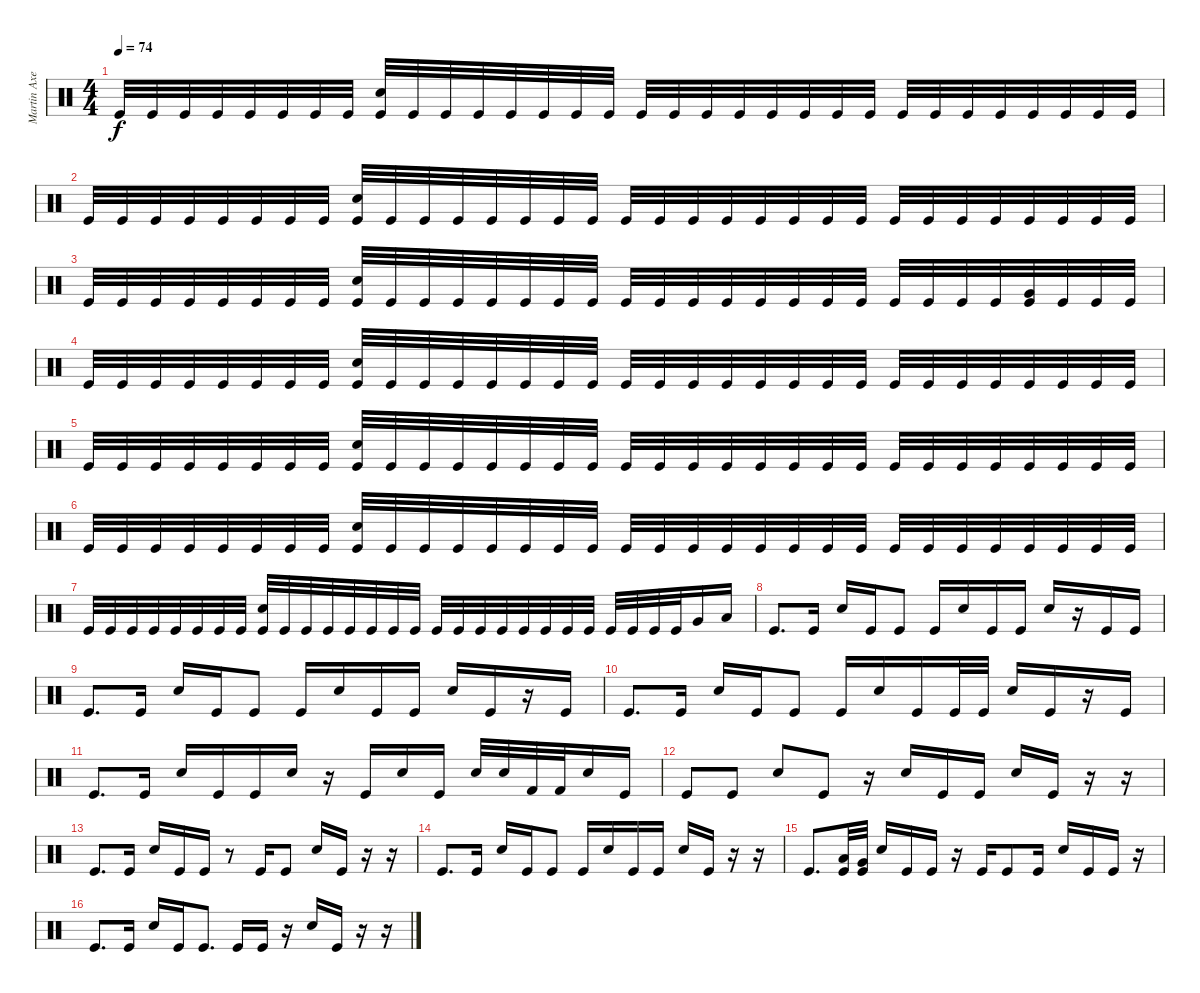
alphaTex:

\track ("Martin Axenrot - Drums" "Martin Axe") {instrument percussion}
\staff {score}
\articulation defaults
\ts (4 4)
\tempo 74
\clef neutral
\ks c "Kick (hit)".32{dy f} "Kick (hit)".32 "Kick (hit)".32 "Kick (hit)".32 "Kick (hit)".32 "Kick (hit)".32 "Kick (hit)".32 "Kick (hit)".32
("Snare (hit) 2" "Kick (hit)").32 "Kick (hit)".32 "Kick (hit)".32 "Kick (hit)".32 "Kick (hit)".32 "Kick (hit)".32 "Kick (hit)".32 "Kick (hit)".32 "Kick (hit)".32 "Kick (hit)".32 "Kick (hit)".32 "Kick (hit)".32 "Kick (hit)".32 "Kick (hit)".32 "Kick (hit)".32 "Kick (hit)".32 "Kick (hit)".32 "Kick (hit)".32 "Kick (hit)".32 "Kick (hit)".32 "Kick (hit)".32 "Kick (hit)".32 "Kick (hit)".32 "Kick (hit)".32 |
"Kick (hit)".32 "Kick (hit)".32 "Kick (hit)".32 "Kick (hit)".32 "Kick (hit)".32 "Kick (hit)".32 "Kick (hit)".32 "Kick (hit)".32 ("Snare (hit) 2" "Kick (hit)").32 "Kick (hit)".32 "Kick (hit)".32 "Kick (hit)".32 "Kick (hit)".32 "Kick (hit)".32 "Kick (hit)".32 "Kick (hit)".32 "Kick (hit)".32 "Kick (hit)".32 "Kick (hit)".32 "Kick (hit)".32 "Kick (hit)".32 "Kick (hit)".32 "Kick (hit)".32 "Kick (hit)".32 "Kick (hit)".32 "Kick (hit)".32 "Kick (hit)".32 "Kick (hit)".32 "Kick (hit)".32 "Kick (hit)".32 "Kick (hit)".32 "Kick (hit)".32 |
"Kick (hit)".32 "Kick (hit)".32 "Kick (hit)".32 "Kick (hit)".32 "Kick (hit)".32 "Kick (hit)".32 "Kick (hit)".32 "Kick (hit)".32 ("Snare (hit) 2" "Kick (hit)").32 "Kick (hit)".32 "Kick (hit)".32 "Kick (hit)".32 "Kick (hit)".32 "Kick (hit)".32 "Kick (hit)".32 "Kick (hit)".32 "Kick (hit)".32 "Kick (hit)".32 "Kick (hit)".32 "Kick (hit)".32 "Kick (hit)".32 "Kick (hit)".32 "Kick (hit)".32 "Kick (hit)".32 "Kick (hit)".32 "Kick (hit)".32 "Kick (hit)".32 "Kick (hit)".32 ("Very Low Tom (hit)" "Kick (hit)").32 "Kick (hit)".32 "Kick (hit)".32 "Kick (hit)".32 |
"Kick (hit)".32 "Kick (hit)".32 "Kick (hit)".32 "Kick (hit)".32 "Kick (hit)".32 "Kick (hit)".32 "Kick (hit)".32 "Kick (hit)".32 ("Snare (hit) 2" "Kick (hit)").32 "Kick (hit)".32 "Kick (hit)".32 "Kick (hit)".32 "Kick (hit)".32 "Kick (hit)".32 "Kick (hit)".32 "Kick (hit)".32 "Kick (hit)".32 "Kick (hit)".32 "Kick (hit)".32 "Kick (hit)".32 "Kick (hit)".32 "Kick (hit)".32 "Kick (hit)".32 "Kick (hit)".32 "Kick (hit)".32 "Kick (hit)".32 "Kick (hit)".32 "Kick (hit)".32 "Kick (hit)".32 "Kick (hit)".32 "Kick (hit)".32 "Kick (hit)".32 |
"Kick (hit)".32 "Kick (hit)".32 "Kick (hit)".32 "Kick (hit)".32 "Kick (hit)".32 "Kick (hit)".32 "Kick (hit)".32 "Kick (hit)".32 ("Snare (hit) 2" "Kick (hit)").32 "Kick (hit)".32 "Kick (hit)".32 "Kick (hit)".32 "Kick (hit)".32 "Kick (hit)".32 "Kick (hit)".32 "Kick (hit)".32 "Kick (hit)".32 "Kick (hit)".32 "Kick (hit)".32 "Kick (hit)".32 "Kick (hit)".32 "Kick (hit)".32 "Kick (hit)".32 "Kick (hit)".32 "Kick (hit)".32 "Kick (hit)".32 "Kick (hit)".32 "Kick (hit)".32 "Kick (hit)".32 "Kick (hit)".32 "Kick (hit)".32 "Kick (hit)".32 |
"Kick (hit)".32 "Kick (hit)".32 "Kick (hit)".32 "Kick (hit)".32 "Kick (hit)".32 "Kick (hit)".32 "Kick (hit)".32 "Kick (hit)".32 ("Snare (hit) 2" "Kick (hit)").32 "Kick (hit)".32 "Kick (hit)".32 "Kick (hit)".32 "Kick (hit)".32 "Kick (hit)".32 "Kick (hit)".32 "Kick (hit)".32 "Kick (hit)".32 "Kick (hit)".32 "Kick (hit)".32 "Kick (hit)".32 "Kick (hit)".32 "Kick (hit)".32 "Kick (hit)".32 "Kick (hit)".32 "Kick (hit)".32 "Kick (hit)".32 "Kick (hit)".32 "Kick (hit)".32 "Kick (hit)".32 "Kick (hit)".32 "Kick (hit)".32 "Kick (hit)".32 |
"Kick (hit)".32 "Kick (hit)".32 "Kick (hit)".32 "Kick (hit)".32 "Kick (hit)".32 "Kick (hit)".32 "Kick (hit)".32 "Kick (hit)".32 ("Snare (hit) 2" "Kick (hit)").32 "Kick (hit)".32 "Kick (hit)".32 "Kick (hit)".32 "Kick (hit)".32 "Kick (hit)".32 "Kick (hit)".32 "Kick (hit)".32 "Kick (hit)".32 "Kick (hit)".32 "Kick (hit)".32 "Kick (hit)".32 "Kick (hit)".32 "Kick (hit)".32 "Kick (hit)".32 "Kick (hit)".32 "Kick (hit)".32 "Kick (hit)".32 "Kick (hit)".32 "Kick (hit)".32 "Very Low Tom (hit)".16 "Low Floor Tom (hit)".16 |
"Kick (hit)".8{d} "Kick (hit)".16 "Snare (hit) 2".16 "Kick (hit)".16 "Kick (hit)".8 "Kick (hit)".16 "Snare (hit) 2".16 "Kick (hit)".16 "Kick (hit)".16 "Snare (hit) 2".16 r.16 "Kick (hit)".16 "Kick (hit)".16 |
"Kick (hit)".8{d} "Kick (hit)".16 "Snare (hit) 2".16 "Kick (hit)".16 "Kick (hit)".8 "Kick (hit)".16 "Snare (hit) 2".16 "Kick (hit)".16 "Kick (hit)".16 "Snare (hit) 2".16 "Kick (hit)".16 r.16 "Kick (hit)".16 |
"Kick (hit)".8{d} "Kick (hit)".16 "Snare (hit) 2".16 "Kick (hit)".16 "Kick (hit)".8 "Kick (hit)".16 "Snare (hit) 2".16 "Kick (hit)".16 "Kick (hit)".32 "Kick (hit)".32 "Snare (hit) 2".16 "Kick (hit)".16 r.16 "Kick (hit)".16 |
"Kick (hit)".8{d} "Kick (hit)".16 "Snare (hit) 2".16 "Kick (hit)".16 "Kick (hit)".16 "Snare (hit) 2".16 r.16 "Kick (hit)".16 "Snare (hit) 2".16 "Kick (hit)".16 "Snare (hit) 2".32 "Snare (hit) 2".32 "Kick (hit) 2".32 "Kick (hit) 2".32 "Snare (hit) 2".16 "Kick (hit)".16 |
"Kick (hit)".8 "Kick (hit)".8 "Snare (hit) 2".8 "Kick (hit)".8 r.16 "Snare (hit) 2".16 "Kick (hit)".16 "Kick (hit)".16 "Snare (hit) 2".16 "Kick (hit)".16 r.16 r.16 |
"Kick (hit)".8{d} "Kick (hit)".16 "Snare (hit) 2".16 "Kick (hit)".16 "Kick (hit)".16 r.8 "Kick (hit)".16 "Kick (hit)".8 "Snare (hit) 2".16 "Kick (hit)".16 r.16 r.16 |
"Kick (hit)".8{d} "Kick (hit)".16 "Snare (hit) 2".16 "Kick (hit)".16 "Kick (hit)".8 "Kick (hit)".16 "Snare (hit) 2".16 "Kick (hit)".16 "Kick (hit)".16 "Snare (hit) 2".16 "Kick (hit)".16 r.16 r.16 |
"Kick (hit)".8{d} ("Low Floor Tom (hit)" "Kick (hit)").32 ("Very Low Tom (hit)" "Kick (hit)").32 "Snare (hit) 2".16 "Kick (hit)".16 "Kick (hit)".16 r.16 "Kick (hit)".16 "Kick (hit)".8 "Kick (hit)".16 "Snare (hit) 2".16 "Kick (hit)".16 "Kick (hit)".16 r.16 |
"Kick (hit)".8{d} "Kick (hit)".16 "Snare (hit) 2".16 "Kick (hit)".16 "Kick (hit)".8{d} "Kick (hit)".16 "Kick (hit)".16 r.16 "Snare (hit) 2".16 "Kick (hit)".16 r.16 r.16
